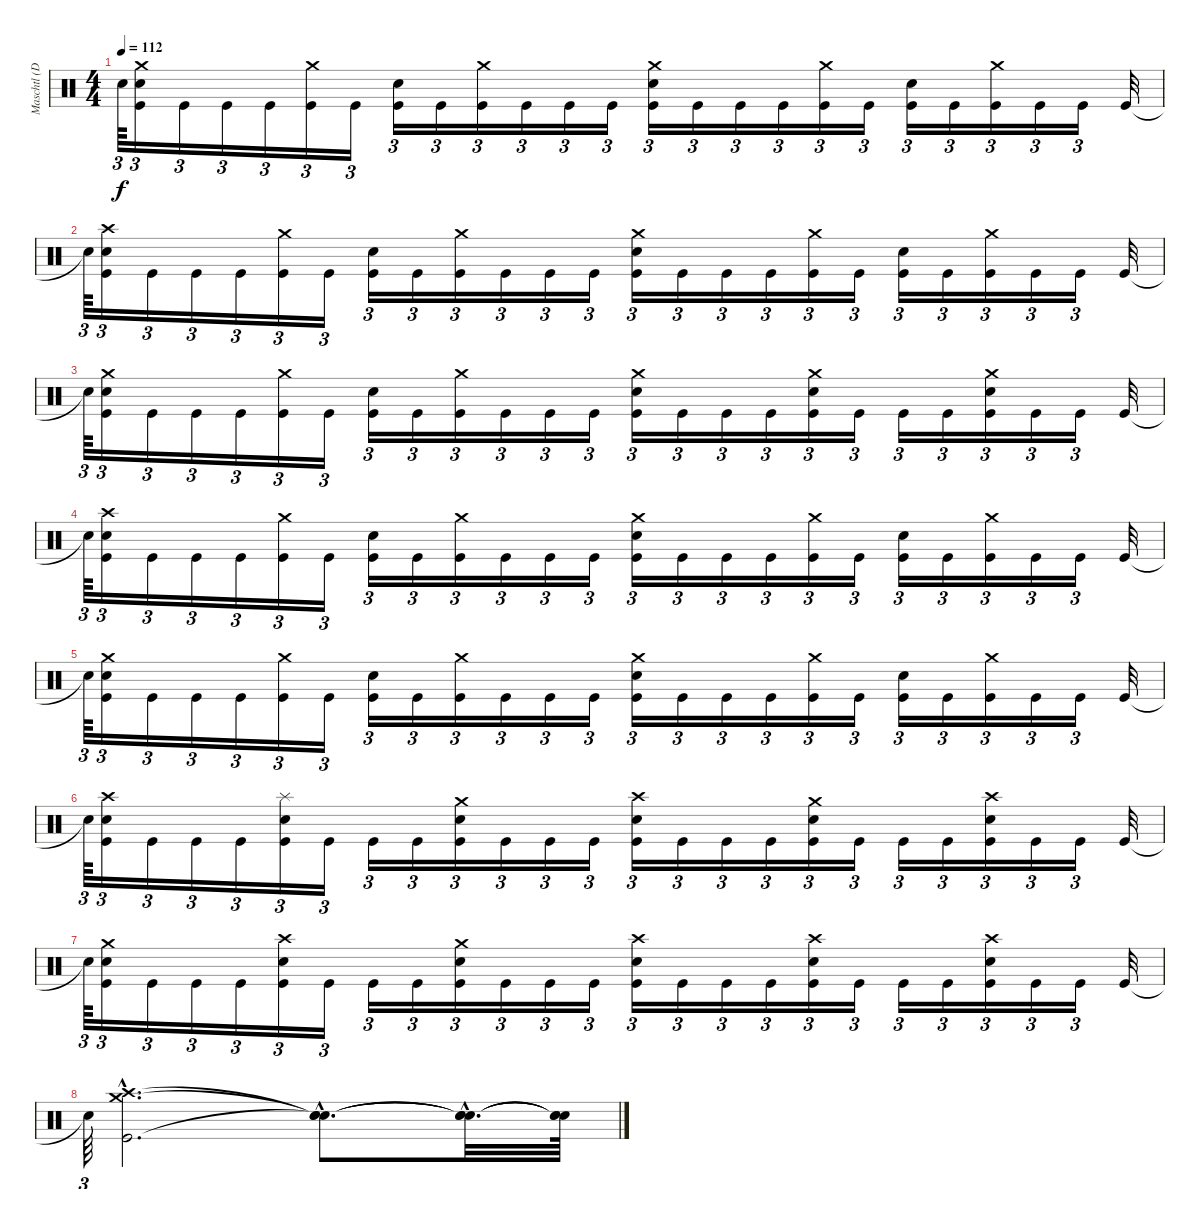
\track ("Maschtl (Drums)" "Maschtl (D") {instrument percussion}
\staff {score}
\articulation defaults
\ts (4 4)
\tempo 112
\clef neutral
\ks c "Snare (hit)"{t}.64{tu (3 2) dy f}
("Crash medium (hit)" "Electric Snare (hit)" "Kick (hit)").16{tu (3 2)} "Kick (hit)".16{tu (3 2)} "Kick (hit)".16{tu (3 2)} "Kick (hit)".16{tu (3 2)} ("Crash medium (hit)" "Kick (hit)").16{tu (3 2)} "Kick (hit)".16{tu (3 2)} ("Electric Snare (hit)" "Kick (hit)").16{tu (3 2)} "Kick (hit)".16{tu (3 2)} ("Crash medium (hit)" "Kick (hit)").16{tu (3 2)} "Kick (hit)".16{tu (3 2)} "Kick (hit)".16{tu (3 2)} "Kick (hit)".16{tu (3 2)} ("Crash medium (hit)" "Electric Snare (hit)" "Kick (hit)").16{tu (3 2)} "Kick (hit)".16{tu (3 2)} "Kick (hit)".16{tu (3 2)} "Kick (hit)".16{tu (3 2)} ("Crash medium (hit)" "Kick (hit)").16{tu (3 2)} "Kick (hit)".16{tu (3 2)} ("Electric Snare (hit)" "Kick (hit)").16{tu (3 2)} "Kick (hit)".16{tu (3 2)} ("Crash medium (hit)" "Kick (hit)").16{tu (3 2)} "Kick (hit)".16{tu (3 2)} "Kick (hit)".16{tu (3 2)} "Kick (hit)".32 |
"Snare (hit)"{t}.64{tu (3 2)} ("Crash high (hit)" "Electric Snare (hit)" "Kick (hit)").16{tu (3 2)} "Kick (hit)".16{tu (3 2)} "Kick (hit)".16{tu (3 2)} "Kick (hit)".16{tu (3 2)} ("Crash medium (hit)" "Kick (hit)").16{tu (3 2)} "Kick (hit)".16{tu (3 2)} ("Electric Snare (hit)" "Kick (hit)").16{tu (3 2)} "Kick (hit)".16{tu (3 2)} ("Crash medium (hit)" "Kick (hit)").16{tu (3 2)} "Kick (hit)".16{tu (3 2)} "Kick (hit)".16{tu (3 2)} "Kick (hit)".16{tu (3 2)} ("Crash medium (hit)" "Electric Snare (hit)" "Kick (hit)").16{tu (3 2)} "Kick (hit)".16{tu (3 2)} "Kick (hit)".16{tu (3 2)} "Kick (hit)".16{tu (3 2)} ("Crash medium (hit)" "Kick (hit)").16{tu (3 2)} "Kick (hit)".16{tu (3 2)} ("Electric Snare (hit)" "Kick (hit)").16{tu (3 2)} "Kick (hit)".16{tu (3 2)} ("Crash medium (hit)" "Kick (hit)").16{tu (3 2)} "Kick (hit)".16{tu (3 2)} "Kick (hit)".16{tu (3 2)} "Kick (hit)".32 |
"Snare (hit)"{t}.64{tu (3 2)} ("Crash medium (hit)" "Electric Snare (hit)" "Kick (hit)").16{tu (3 2)} "Kick (hit)".16{tu (3 2)} "Kick (hit)".16{tu (3 2)} "Kick (hit)".16{tu (3 2)} ("Crash medium (hit)" "Kick (hit)").16{tu (3 2)} "Kick (hit)".16{tu (3 2)} ("Electric Snare (hit)" "Kick (hit)").16{tu (3 2)} "Kick (hit)".16{tu (3 2)} ("Crash medium (hit)" "Kick (hit)").16{tu (3 2)} "Kick (hit)".16{tu (3 2)} "Kick (hit)".16{tu (3 2)} "Kick (hit)".16{tu (3 2)} ("Crash medium (hit)" "Electric Snare (hit)" "Kick (hit)").16{tu (3 2)} "Kick (hit)".16{tu (3 2)} "Kick (hit)".16{tu (3 2)} "Kick (hit)".16{tu (3 2)} ("Crash medium (hit)" "Electric Snare (hit)" "Kick (hit)").16{tu (3 2)} "Kick (hit)".16{tu (3 2)} "Kick (hit)".16{tu (3 2)} "Kick (hit)".16{tu (3 2)} ("Crash medium (hit)" "Electric Snare (hit)" "Kick (hit)").16{tu (3 2)} "Kick (hit)".16{tu (3 2)} "Kick (hit)".16{tu (3 2)} "Kick (hit)".32 |
"Snare (hit)"{t}.64{tu (3 2)} ("Crash high (hit)" "Electric Snare (hit)" "Kick (hit)").16{tu (3 2)} "Kick (hit)".16{tu (3 2)} "Kick (hit)".16{tu (3 2)} "Kick (hit)".16{tu (3 2)} ("Crash medium (hit)" "Kick (hit)").16{tu (3 2)} "Kick (hit)".16{tu (3 2)} ("Electric Snare (hit)" "Kick (hit)").16{tu (3 2)} "Kick (hit)".16{tu (3 2)} ("Crash medium (hit)" "Kick (hit)").16{tu (3 2)} "Kick (hit)".16{tu (3 2)} "Kick (hit)".16{tu (3 2)} "Kick (hit)".16{tu (3 2)} ("Crash medium (hit)" "Electric Snare (hit)" "Kick (hit)").16{tu (3 2)} "Kick (hit)".16{tu (3 2)} "Kick (hit)".16{tu (3 2)} "Kick (hit)".16{tu (3 2)} ("Crash medium (hit)" "Kick (hit)").16{tu (3 2)} "Kick (hit)".16{tu (3 2)} ("Electric Snare (hit)" "Kick (hit)").16{tu (3 2)} "Kick (hit)".16{tu (3 2)} ("Crash medium (hit)" "Kick (hit)").16{tu (3 2)} "Kick (hit)".16{tu (3 2)} "Kick (hit)".16{tu (3 2)} "Kick (hit)".32 |
"Snare (hit)"{t}.64{tu (3 2)} ("Crash medium (hit)" "Electric Snare (hit)" "Kick (hit)").16{tu (3 2)} "Kick (hit)".16{tu (3 2)} "Kick (hit)".16{tu (3 2)} "Kick (hit)".16{tu (3 2)} ("Crash medium (hit)" "Kick (hit)").16{tu (3 2)} "Kick (hit)".16{tu (3 2)} ("Electric Snare (hit)" "Kick (hit)").16{tu (3 2)} "Kick (hit)".16{tu (3 2)} ("Crash medium (hit)" "Kick (hit)").16{tu (3 2)} "Kick (hit)".16{tu (3 2)} "Kick (hit)".16{tu (3 2)} "Kick (hit)".16{tu (3 2)} ("Crash medium (hit)" "Electric Snare (hit)" "Kick (hit)").16{tu (3 2)} "Kick (hit)".16{tu (3 2)} "Kick (hit)".16{tu (3 2)} "Kick (hit)".16{tu (3 2)} ("Crash medium (hit)" "Kick (hit)").16{tu (3 2)} "Kick (hit)".16{tu (3 2)} ("Electric Snare (hit)" "Kick (hit)").16{tu (3 2)} "Kick (hit)".16{tu (3 2)} ("Crash medium (hit)" "Kick (hit)").16{tu (3 2)} "Kick (hit)".16{tu (3 2)} "Kick (hit)".16{tu (3 2)} "Kick (hit)".32 |
"Snare (hit)"{t}.64{tu (3 2)} ("Crash high (hit)" "Electric Snare (hit)" "Kick (hit)").16{tu (3 2)} "Kick (hit)".16{tu (3 2)} "Kick (hit)".16{tu (3 2)} "Kick (hit)".16{tu (3 2)} ("Splash (hit)" "Electric Snare (hit)" "Kick (hit)").16{tu (3 2)} "Kick (hit)".16{tu (3 2)} "Kick (hit)".16{tu (3 2)} "Kick (hit)".16{tu (3 2)} ("Crash medium (hit)" "Electric Snare (hit)" "Kick (hit)").16{tu (3 2)} "Kick (hit)".16{tu (3 2)} "Kick (hit)".16{tu (3 2)} "Kick (hit)".16{tu (3 2)} ("Crash high (hit)" "Electric Snare (hit)" "Kick (hit)").16{tu (3 2)} "Kick (hit)".16{tu (3 2)} "Kick (hit)".16{tu (3 2)} "Kick (hit)".16{tu (3 2)} ("Crash medium (hit)" "Electric Snare (hit)" "Kick (hit)").16{tu (3 2)} "Kick (hit)".16{tu (3 2)} "Kick (hit)".16{tu (3 2)} "Kick (hit)".16{tu (3 2)} ("Crash high (hit)" "Electric Snare (hit)" "Kick (hit)").16{tu (3 2)} "Kick (hit)".16{tu (3 2)} "Kick (hit)".16{tu (3 2)} "Kick (hit)".32 |
"Snare (hit)"{t}.64{tu (3 2)} ("Crash medium (hit)" "Electric Snare (hit)" "Kick (hit)").16{tu (3 2)} "Kick (hit)".16{tu (3 2)} "Kick (hit)".16{tu (3 2)} "Kick (hit)".16{tu (3 2)} ("Crash high (hit)" "Electric Snare (hit)" "Kick (hit)").16{tu (3 2)} "Kick (hit)".16{tu (3 2)} "Kick (hit)".16{tu (3 2)} "Kick (hit)".16{tu (3 2)} ("Crash medium (hit)" "Electric Snare (hit)" "Kick (hit)").16{tu (3 2)} "Kick (hit)".16{tu (3 2)} "Kick (hit)".16{tu (3 2)} "Kick (hit)".16{tu (3 2)} ("Crash high (hit)" "Electric Snare (hit)" "Kick (hit)").16{tu (3 2)} "Kick (hit)".16{tu (3 2)} "Kick (hit)".16{tu (3 2)} "Kick (hit)".16{tu (3 2)} ("Crash high (hit)" "Electric Snare (hit)" "Kick (hit)").16{tu (3 2)} "Kick (hit)".16{tu (3 2)} "Kick (hit)".16{tu (3 2)} "Kick (hit)".16{tu (3 2)} ("Crash high (hit)" "Electric Snare (hit)" "Kick (hit)").16{tu (3 2)} "Kick (hit)".16{tu (3 2)} "Kick (hit)".16{tu (3 2)} "Kick (hit)".32 |
"Snare (hit)"{t}.64{tu (3 2)} ("Crash high (hit)"{hac} "Crash medium (hit)"{hac} "Kick (hit)"{hac}).2{d} ("Snare (hit)"{hac t} "Snare (hit)"{hac t} "Snare (hit)"{hac t}).8{d} ("Snare (hit)"{hac t} "Snare (hit)"{hac t} "Snare (hit)"{hac t}).32{d} ("Snare (hit)"{t} "Snare (hit)"{t} "Snare (hit)"{t}).64
